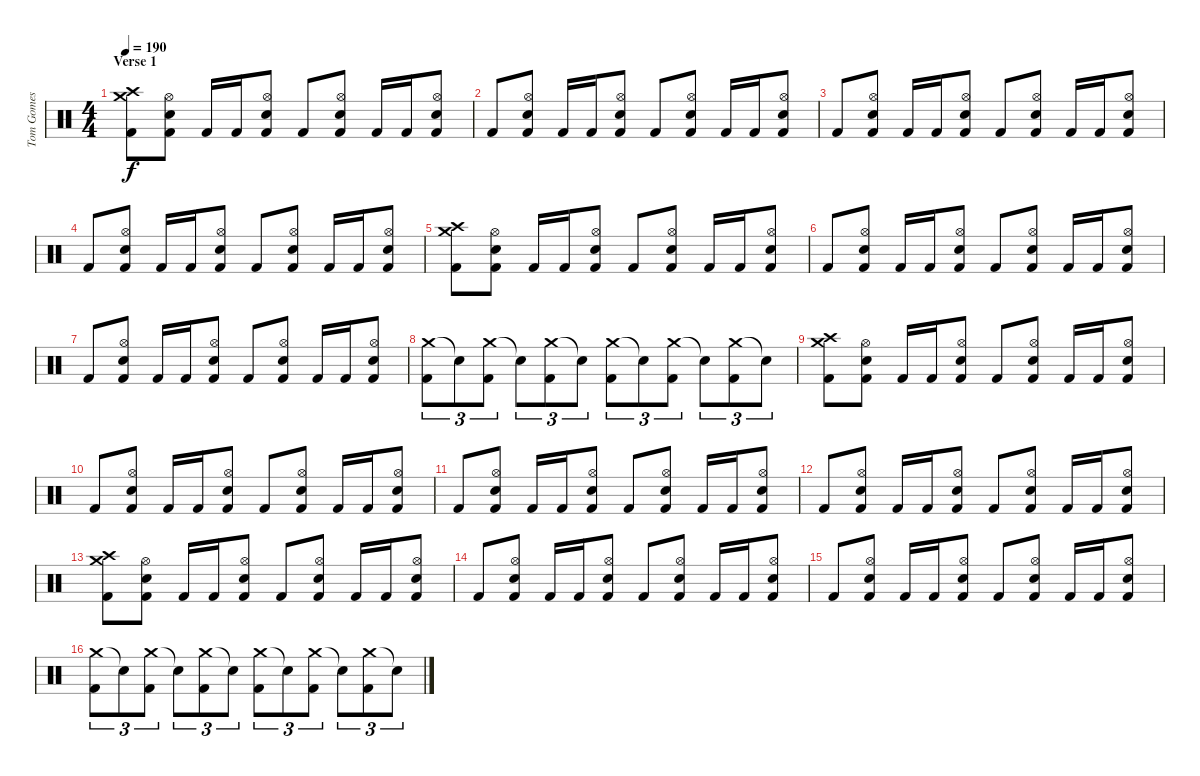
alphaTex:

\track ("Tom Gomes" "Tom Gomes") {instrument percussion}
\staff {score}
\articulation defaults
\ts (4 4)
\section ("" "Verse 1")
\tempo 190
\clef neutral
\ks c
("Crash high (hit)" "Crash medium (hit)" "Kick (hit) 2").8{dy f} ("Hi-Hat (open)" "Snare (hit) 2" "Kick (hit) 2").8 "Kick (hit) 2".16 "Kick (hit) 2".16 ("Hi-Hat (open)" "Snare (hit) 2" "Kick (hit) 2").8 "Kick (hit) 2".8 ("Hi-Hat (open)" "Snare (hit) 2" "Kick (hit) 2").8 "Kick (hit) 2".16 "Kick (hit) 2".16 ("Hi-Hat (open)" "Snare (hit) 2" "Kick (hit) 2").8 |
"Kick (hit) 2".8 ("Hi-Hat (open)" "Snare (hit) 2" "Kick (hit) 2").8 "Kick (hit) 2".16 "Kick (hit) 2".16 ("Hi-Hat (open)" "Snare (hit) 2" "Kick (hit) 2").8 "Kick (hit) 2".8 ("Hi-Hat (open)" "Snare (hit) 2" "Kick (hit) 2").8 "Kick (hit) 2".16 "Kick (hit) 2".16 ("Hi-Hat (open)" "Snare (hit) 2" "Kick (hit) 2").8 |
"Kick (hit) 2".8 ("Hi-Hat (open)" "Snare (hit) 2" "Kick (hit) 2").8 "Kick (hit) 2".16 "Kick (hit) 2".16 ("Hi-Hat (open)" "Snare (hit) 2" "Kick (hit) 2").8 "Kick (hit) 2".8 ("Hi-Hat (open)" "Snare (hit) 2" "Kick (hit) 2").8 "Kick (hit) 2".16 "Kick (hit) 2".16 ("Hi-Hat (open)" "Snare (hit) 2" "Kick (hit) 2").8 |
"Kick (hit) 2".8 ("Hi-Hat (open)" "Snare (hit) 2" "Kick (hit) 2").8 "Kick (hit) 2".16 "Kick (hit) 2".16 ("Hi-Hat (open)" "Snare (hit) 2" "Kick (hit) 2").8 "Kick (hit) 2".8 ("Hi-Hat (open)" "Snare (hit) 2" "Kick (hit) 2").8 "Kick (hit) 2".16 "Kick (hit) 2".16 ("Hi-Hat (open)" "Snare (hit) 2" "Kick (hit) 2").8 |
("Crash high (hit)" "Crash medium (hit)" "Kick (hit) 2").8 ("Hi-Hat (open)" "Snare (hit) 2" "Kick (hit) 2").8 "Kick (hit) 2".16 "Kick (hit) 2".16 ("Hi-Hat (open)" "Snare (hit) 2" "Kick (hit) 2").8 "Kick (hit) 2".8 ("Hi-Hat (open)" "Snare (hit) 2" "Kick (hit) 2").8 "Kick (hit) 2".16 "Kick (hit) 2".16 ("Hi-Hat (open)" "Snare (hit) 2" "Kick (hit) 2").8 |
"Kick (hit) 2".8 ("Hi-Hat (open)" "Snare (hit) 2" "Kick (hit) 2").8 "Kick (hit) 2".16 "Kick (hit) 2".16 ("Hi-Hat (open)" "Snare (hit) 2" "Kick (hit) 2").8 "Kick (hit) 2".8 ("Hi-Hat (open)" "Snare (hit) 2" "Kick (hit) 2").8 "Kick (hit) 2".16 "Kick (hit) 2".16 ("Hi-Hat (open)" "Snare (hit) 2" "Kick (hit) 2").8 |
"Kick (hit) 2".8 ("Hi-Hat (open)" "Snare (hit) 2" "Kick (hit) 2").8 "Kick (hit) 2".16 "Kick (hit) 2".16 ("Hi-Hat (open)" "Snare (hit) 2" "Kick (hit) 2").8 "Kick (hit) 2".8 ("Hi-Hat (open)" "Snare (hit) 2" "Kick (hit) 2").8 "Kick (hit) 2".16 "Kick (hit) 2".16 ("Hi-Hat (open)" "Snare (hit) 2" "Kick (hit) 2").8 |
("Crash medium (hit)" "Kick (hit) 2").8{tu (3 2)} "Snare (hit)"{t}.8{tu (3 2)} ("Crash medium (hit)" "Kick (hit) 2").8{tu (3 2)} "Snare (hit)"{t}.8{tu (3 2)} ("Crash medium (hit)" "Kick (hit) 2").8{tu (3 2)} "Snare (hit)"{t}.8{tu (3 2)} ("Crash medium (hit)" "Kick (hit) 2").8{tu (3 2)} "Snare (hit)"{t}.8{tu (3 2)} ("Crash medium (hit)" "Kick (hit) 2").8{tu (3 2)} "Snare (hit)"{t}.8{tu (3 2)} ("Crash medium (hit)" "Kick (hit) 2").8{tu (3 2)} "Snare (hit)"{t}.8{tu (3 2)} |
("Crash high (hit)" "Crash medium (hit)" "Kick (hit) 2").8 ("Hi-Hat (open)" "Snare (hit) 2" "Kick (hit) 2").8 "Kick (hit) 2".16 "Kick (hit) 2".16 ("Hi-Hat (open)" "Snare (hit) 2" "Kick (hit) 2").8 "Kick (hit) 2".8 ("Hi-Hat (open)" "Snare (hit) 2" "Kick (hit) 2").8 "Kick (hit) 2".16 "Kick (hit) 2".16 ("Hi-Hat (open)" "Snare (hit) 2" "Kick (hit) 2").8 |
"Kick (hit) 2".8 ("Hi-Hat (open)" "Snare (hit) 2" "Kick (hit) 2").8 "Kick (hit) 2".16 "Kick (hit) 2".16 ("Hi-Hat (open)" "Snare (hit) 2" "Kick (hit) 2").8 "Kick (hit) 2".8 ("Hi-Hat (open)" "Snare (hit) 2" "Kick (hit) 2").8 "Kick (hit) 2".16 "Kick (hit) 2".16 ("Hi-Hat (open)" "Snare (hit) 2" "Kick (hit) 2").8 |
"Kick (hit) 2".8 ("Hi-Hat (open)" "Snare (hit) 2" "Kick (hit) 2").8 "Kick (hit) 2".16 "Kick (hit) 2".16 ("Hi-Hat (open)" "Snare (hit) 2" "Kick (hit) 2").8 "Kick (hit) 2".8 ("Hi-Hat (open)" "Snare (hit) 2" "Kick (hit) 2").8 "Kick (hit) 2".16 "Kick (hit) 2".16 ("Hi-Hat (open)" "Snare (hit) 2" "Kick (hit) 2").8 |
"Kick (hit) 2".8 ("Hi-Hat (open)" "Snare (hit) 2" "Kick (hit) 2").8 "Kick (hit) 2".16 "Kick (hit) 2".16 ("Hi-Hat (open)" "Snare (hit) 2" "Kick (hit) 2").8 "Kick (hit) 2".8 ("Hi-Hat (open)" "Snare (hit) 2" "Kick (hit) 2").8 "Kick (hit) 2".16 "Kick (hit) 2".16 ("Hi-Hat (open)" "Snare (hit) 2" "Kick (hit) 2").8 |
("Crash high (hit)" "Crash medium (hit)" "Kick (hit) 2").8 ("Hi-Hat (open)" "Snare (hit) 2" "Kick (hit) 2").8 "Kick (hit) 2".16 "Kick (hit) 2".16 ("Hi-Hat (open)" "Snare (hit) 2" "Kick (hit) 2").8 "Kick (hit) 2".8 ("Hi-Hat (open)" "Snare (hit) 2" "Kick (hit) 2").8 "Kick (hit) 2".16 "Kick (hit) 2".16 ("Hi-Hat (open)" "Snare (hit) 2" "Kick (hit) 2").8 |
"Kick (hit) 2".8 ("Hi-Hat (open)" "Snare (hit) 2" "Kick (hit) 2").8 "Kick (hit) 2".16 "Kick (hit) 2".16 ("Hi-Hat (open)" "Snare (hit) 2" "Kick (hit) 2").8 "Kick (hit) 2".8 ("Hi-Hat (open)" "Snare (hit) 2" "Kick (hit) 2").8 "Kick (hit) 2".16 "Kick (hit) 2".16 ("Hi-Hat (open)" "Snare (hit) 2" "Kick (hit) 2").8 |
"Kick (hit) 2".8 ("Hi-Hat (open)" "Snare (hit) 2" "Kick (hit) 2").8 "Kick (hit) 2".16 "Kick (hit) 2".16 ("Hi-Hat (open)" "Snare (hit) 2" "Kick (hit) 2").8 "Kick (hit) 2".8 ("Hi-Hat (open)" "Snare (hit) 2" "Kick (hit) 2").8 "Kick (hit) 2".16 "Kick (hit) 2".16 ("Hi-Hat (open)" "Snare (hit) 2" "Kick (hit) 2").8 |
("Crash medium (hit)" "Kick (hit) 2").8{tu (3 2)} "Snare (hit)"{t}.8{tu (3 2)} ("Crash medium (hit)" "Kick (hit) 2").8{tu (3 2)} "Snare (hit)"{t}.8{tu (3 2)} ("Crash medium (hit)" "Kick (hit) 2").8{tu (3 2)} "Snare (hit)"{t}.8{tu (3 2)} ("Crash medium (hit)" "Kick (hit) 2").8{tu (3 2)} "Snare (hit)"{t}.8{tu (3 2)} ("Crash medium (hit)" "Kick (hit) 2").8{tu (3 2)} "Snare (hit)"{t}.8{tu (3 2)} ("Crash medium (hit)" "Kick (hit) 2").8{tu (3 2)} "Snare (hit)"{t}.8{tu (3 2)}
